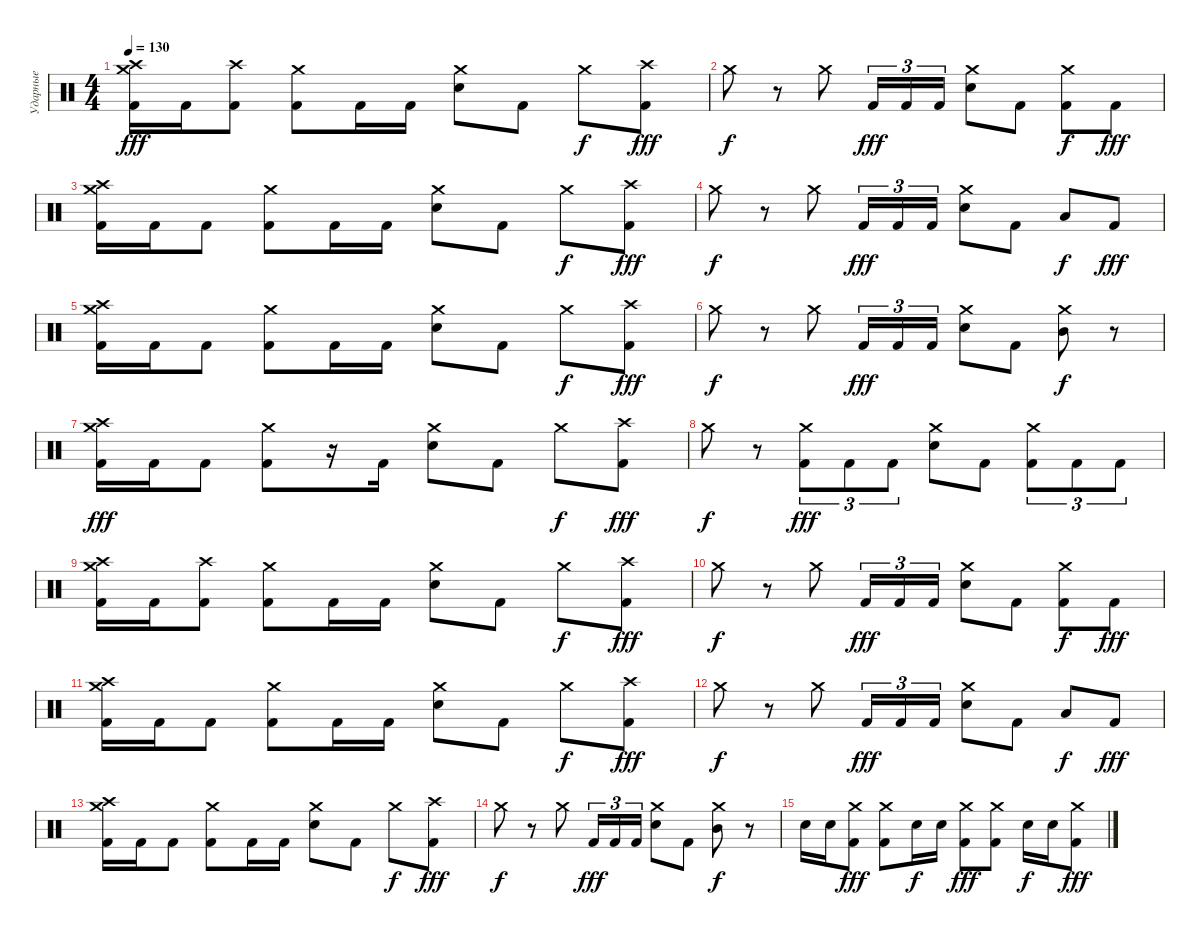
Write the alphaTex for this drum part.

\track ("Ударные" "Ударные") {instrument percussion}
\staff {score}
\articulation defaults
\ts (4 4)
\tempo 130
\clef neutral
\ks c
("Crash high (hit)" "Crash medium (hit)" "Kick (hit) 2").16{dy fff} "Kick (hit) 2".16 ("Crash high (hit)" "Kick (hit) 2").8 ("Crash medium (hit)" "Kick (hit) 2").8 "Kick (hit) 2".16 "Kick (hit) 2".16 ("Crash medium (hit)" "Electric Snare (hit)").8 "Kick (hit) 2".8 "Crash medium (hit)".8{dy f} ("Crash high (hit)" "Kick (hit) 2").8{dy fff} |
"Crash medium (hit)".8{dy f} r.8 "Crash medium (hit)".8 "Kick (hit) 2".16{tu (3 2) dy fff} "Kick (hit) 2".16{tu (3 2)} "Kick (hit) 2".16{tu (3 2)} ("Crash medium (hit)" "Electric Snare (hit)").8 "Kick (hit) 2".8 ("Crash medium (hit)" "Kick (hit) 2").8{dy f} "Kick (hit) 2".8{dy fff} |
("Crash high (hit)" "Crash medium (hit)" "Kick (hit) 2").16 "Kick (hit) 2".16 "Kick (hit) 2".8 ("Crash medium (hit)" "Kick (hit) 2").8 "Kick (hit) 2".16 "Kick (hit) 2".16 ("Crash medium (hit)" "Electric Snare (hit)").8 "Kick (hit) 2".8 "Crash medium (hit)".8{dy f} ("Crash high (hit)" "Kick (hit) 2").8{dy fff} |
"Crash medium (hit)".8{dy f} r.8 "Crash medium (hit)".8 "Kick (hit) 2".16{tu (3 2) dy fff} "Kick (hit) 2".16{tu (3 2)} "Kick (hit) 2".16{tu (3 2)} ("Crash medium (hit)" "Electric Snare (hit)").8 "Kick (hit) 2".8 "Low Floor Tom (hit)".8{dy f} "Kick (hit) 2".8{dy fff} |
("Crash high (hit)" "Crash medium (hit)" "Kick (hit) 2").16 "Kick (hit) 2".16 "Kick (hit) 2".8 ("Crash medium (hit)" "Kick (hit) 2").8 "Kick (hit) 2".16 "Kick (hit) 2".16 ("Crash medium (hit)" "Electric Snare (hit)").8 "Kick (hit) 2".8 "Crash medium (hit)".8{dy f} ("Crash high (hit)" "Kick (hit) 2").8{dy fff} |
"Crash medium (hit)".8{dy f} r.8 "Crash medium (hit)".8 "Kick (hit) 2".16{tu (3 2) dy fff} "Kick (hit) 2".16{tu (3 2)} "Kick (hit) 2".16{tu (3 2)} ("Crash medium (hit)" "Electric Snare (hit)").8 "Kick (hit) 2".8 ("Crash medium (hit)" "Mid Tom (hit)").8{dy f} r.8 |
("Crash high (hit)" "Crash medium (hit)" "Kick (hit) 2").16{dy fff} "Kick (hit) 2".16 "Kick (hit) 2".8 ("Crash medium (hit)" "Kick (hit) 2").8 r.16 "Kick (hit) 2".16 ("Crash medium (hit)" "Electric Snare (hit)").8 "Kick (hit) 2".8 "Crash medium (hit)".8{dy f} ("Crash high (hit)" "Kick (hit) 2").8{dy fff} |
"Crash medium (hit)".8{dy f} r.8 ("Crash medium (hit)" "Kick (hit) 2").8{tu (3 2) dy fff} "Kick (hit) 2".8{tu (3 2)} "Kick (hit) 2".8{tu (3 2)} ("Crash medium (hit)" "Electric Snare (hit)").8 "Kick (hit) 2".8 ("Crash medium (hit)" "Kick (hit) 2").8{tu (3 2)} "Kick (hit) 2".8{tu (3 2)} "Kick (hit) 2".8{tu (3 2)} |
("Crash high (hit)" "Crash medium (hit)" "Kick (hit) 2").16 "Kick (hit) 2".16 ("Crash high (hit)" "Kick (hit) 2").8 ("Crash medium (hit)" "Kick (hit) 2").8 "Kick (hit) 2".16 "Kick (hit) 2".16 ("Crash medium (hit)" "Electric Snare (hit)").8 "Kick (hit) 2".8 "Crash medium (hit)".8{dy f} ("Crash high (hit)" "Kick (hit) 2").8{dy fff} |
"Crash medium (hit)".8{dy f} r.8 "Crash medium (hit)".8 "Kick (hit) 2".16{tu (3 2) dy fff} "Kick (hit) 2".16{tu (3 2)} "Kick (hit) 2".16{tu (3 2)} ("Crash medium (hit)" "Electric Snare (hit)").8 "Kick (hit) 2".8 ("Crash medium (hit)" "Kick (hit) 2").8{dy f} "Kick (hit) 2".8{dy fff} |
("Crash high (hit)" "Crash medium (hit)" "Kick (hit) 2").16 "Kick (hit) 2".16 "Kick (hit) 2".8 ("Crash medium (hit)" "Kick (hit) 2").8 "Kick (hit) 2".16 "Kick (hit) 2".16 ("Crash medium (hit)" "Electric Snare (hit)").8 "Kick (hit) 2".8 "Crash medium (hit)".8{dy f} ("Crash high (hit)" "Kick (hit) 2").8{dy fff} |
"Crash medium (hit)".8{dy f} r.8 "Crash medium (hit)".8 "Kick (hit) 2".16{tu (3 2) dy fff} "Kick (hit) 2".16{tu (3 2)} "Kick (hit) 2".16{tu (3 2)} ("Crash medium (hit)" "Electric Snare (hit)").8 "Kick (hit) 2".8 "Low Floor Tom (hit)".8{dy f} "Kick (hit) 2".8{dy fff} |
("Crash high (hit)" "Crash medium (hit)" "Kick (hit) 2").16 "Kick (hit) 2".16 "Kick (hit) 2".8 ("Crash medium (hit)" "Kick (hit) 2").8 "Kick (hit) 2".16 "Kick (hit) 2".16 ("Crash medium (hit)" "Electric Snare (hit)").8 "Kick (hit) 2".8 "Crash medium (hit)".8{dy f} ("Crash high (hit)" "Kick (hit) 2").8{dy fff} |
"Crash medium (hit)".8{dy f} r.8 "Crash medium (hit)".8 "Kick (hit) 2".16{tu (3 2) dy fff} "Kick (hit) 2".16{tu (3 2)} "Kick (hit) 2".16{tu (3 2)} ("Crash medium (hit)" "Electric Snare (hit)").8 "Kick (hit) 2".8 ("Crash medium (hit)" "Mid Tom (hit)").8{dy f} r.8 |
"Electric Snare (hit)".16 "Electric Snare (hit)".16 ("Crash medium (hit)" "Kick (hit) 2").8{dy fff} ("Crash medium (hit)" "Kick (hit) 2").8 "Electric Snare (hit)".16{dy f} "Electric Snare (hit)".16 ("Crash medium (hit)" "Kick (hit) 2").8{dy fff} ("Crash medium (hit)" "Kick (hit) 2").8 "Electric Snare (hit)".16{dy f} "Electric Snare (hit)".16 ("Crash medium (hit)" "Kick (hit) 2").8{dy fff}
